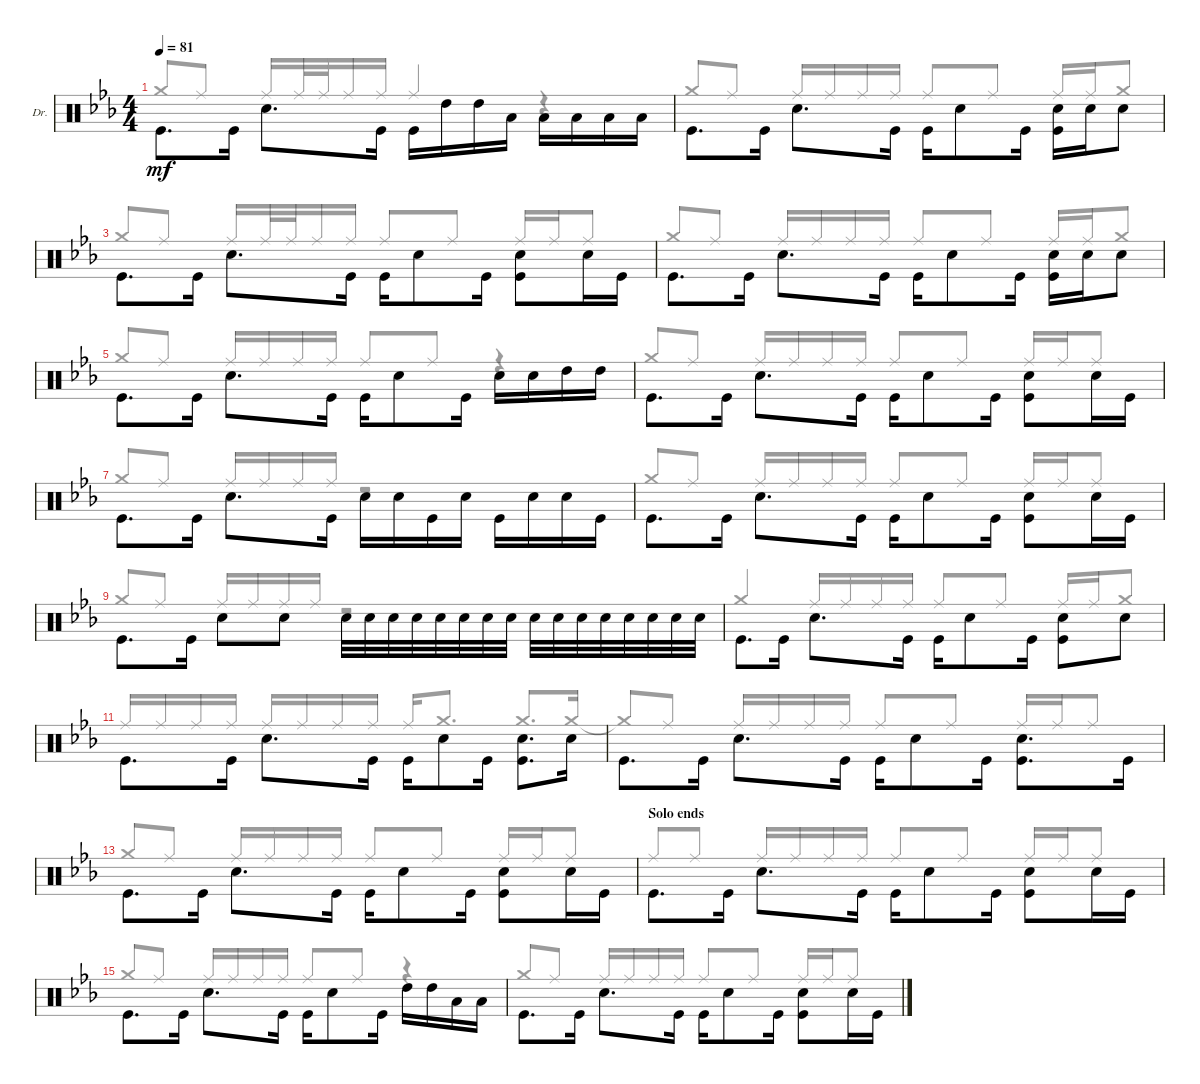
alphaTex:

\bracketExtendMode groupsimilarinstruments
\firstSystemTrackNameOrientation horizontal
\otherSystemsTrackNameOrientation horizontal
\defaultBarNumberDisplay FirstOfSystem
\track ("Drums" "Dr.") {multiBarRest instrument percussion}
\staff {score}
\articulation defaults
\voice
\ts (4 4)
\tempo 81
\clef neutral
\ks eb "Kick (hit)".8{d dy mf beam invert} "Kick (hit)".16 "Snare (hit) 2".8{d beam invert} "Kick (hit)".16 "Kick (hit)".16{beam invert} "High Tom (hit)".16 "High Tom (hit)".16 "Low Tom (hit)".16 "Low Tom (hit)".16{beam invert} "Low Tom (hit)".16 "Low Tom (hit)".16 "Low Tom (hit)".16
|
"Kick (hit)".8{d beam invert} "Kick (hit)".16 "Snare (hit) 2".8{d beam invert} "Kick (hit)".16 "Kick (hit)".16{beam invert} "Snare (hit) 2".8 "Kick (hit)".16 ("Snare (hit) 2" "Kick (hit)").16 "Snare (hit) 2".16{beam invert} "Snare (hit) 2".8 |
"Kick (hit)".8{d} "Kick (hit)".16{beam invert} "Snare (hit) 2".8{d beam invert} "Kick (hit)".16 "Kick (hit)".16{beam invert} "Snare (hit) 2".8 "Kick (hit)".16 ("Snare (hit) 2" "Kick (hit)").8{beam invert} "Snare (hit) 2".16 "Kick (hit)".16 |
"Kick (hit)".8{d beam invert} "Kick (hit)".16 "Snare (hit) 2".8{d beam invert} "Kick (hit)".16 "Kick (hit)".16{beam invert} "Snare (hit) 2".8 "Kick (hit)".16 ("Kick (hit)" "Snare (hit) 2").16{beam invert} "Snare (hit) 2".16 "Snare (hit) 2".8 |
"Kick (hit)".8{d beam invert} "Kick (hit)".16 "Snare (hit) 2".8{d} "Kick (hit)".16{beam invert} "Kick (hit)".16 "Snare (hit) 2".8 "Kick (hit)".16{beam invert} "Snare (hit) 2".16{beam invert} "Snare (hit) 2".16 "High Tom (hit)".16 "High Tom (hit)".16 |
"Kick (hit)".8{d beam invert} "Kick (hit)".16 "Snare (hit) 2".8{d beam invert} "Kick (hit)".16 "Kick (hit)".16 "Snare (hit) 2".8{beam invert} "Kick (hit)".16 ("Snare (hit) 2" "Kick (hit)").8 "Snare (hit) 2".16{beam invert} "Kick (hit)".16 |
"Kick (hit)".8{d} "Kick (hit)".16{beam invert} "Snare (hit) 2".8{d} "Kick (hit)".16{beam invert} "Snare (hit) 2".16 "Snare (hit) 2".16{beam invert} "Kick (hit)".16 "Snare (hit) 2".16 "Kick (hit)".16 "Snare (hit) 2".16{beam invert} "Snare (hit) 2".16 "Kick (hit)".16 |
"Kick (hit)".8{d} "Kick (hit)".16{beam invert} "Snare (hit) 2".8{d beam invert} "Kick (hit)".16 "Kick (hit)".16 "Snare (hit) 2".8{beam invert} "Kick (hit)".16 ("Snare (hit) 2" "Kick (hit)").8 "Snare (hit) 2".16 "Kick (hit)".16{beam invert} |
"Kick (hit)".8{d beam invert} "Kick (hit)".16 "Snare (hit) 2".8 "Snare (hit) 2".8{beam invert} "Snare (hit) 2".32 "Snare (hit) 2".32{beam invert} "Snare (hit) 2".32 "Snare (hit) 2".32{beam invert} "Snare (hit) 2".32 "Snare (hit) 2".32 "Snare (hit) 2".32{beam invert} "Snare (hit) 2".32 "Snare (hit) 2".32 "Snare (hit) 2".32{beam invert} "Snare (hit) 2".32 "Snare (hit) 2".32 "Snare (hit) 2".32{beam invert} "Snare (hit) 2".32 "Snare (hit) 2".32 "Snare (hit) 2".32{beam invert} |
"Kick (hit)".8{d} "Kick (hit)".16{beam invert} "Snare (hit) 2".8{d} "Kick (hit)".16{beam invert} "Kick (hit)".16{beam invert} "Snare (hit) 2".8 "Kick (hit)".16 ("Snare (hit) 2" "Kick (hit)").8{beam invert} "Snare (hit) 2".8 |
"Kick (hit)".8{d beam invert} "Kick (hit)".16 "Snare (hit) 2".8{d beam invert} "Kick (hit)".16 "Kick (hit)".16 "Snare (hit) 2".8 "Kick (hit)".16{beam invert} ("Snare (hit) 2" "Kick (hit)").8{d beam invert} "Snare (hit) 2".16 |
"Kick (hit)".8{d} "Kick (hit)".16{beam invert} "Snare (hit) 2".8{d beam invert} "Kick (hit)".16 "Kick (hit)".16 "Snare (hit) 2".8{beam invert} "Kick (hit)".16 ("Snare (hit) 2" "Kick (hit)").8{d beam invert} "Kick (hit)".16 |
"Kick (hit)".8{d beam invert} "Kick (hit)".16 "Snare (hit) 2".8{d} "Kick (hit)".16{beam invert} "Kick (hit)".16 "Snare (hit) 2".8{beam invert} "Kick (hit)".16 ("Snare (hit) 2" "Kick (hit)").8{beam invert} "Snare (hit) 2".16 "Kick (hit)".16 |
\section ("" "Solo ends")
"Kick (hit)".8{d} "Kick (hit)".16{beam invert} "Snare (hit) 2".8{d beam invert} "Kick (hit)".16 "Kick (hit)".16 "Snare (hit) 2".8{beam invert} "Kick (hit)".16 ("Snare (hit) 2" "Kick (hit)").8 "Snare (hit) 2".16 "Kick (hit)".16{beam invert} |
"Kick (hit)".8{d beam invert} "Kick (hit)".16 "Snare (hit) 2".8{d} "Kick (hit)".16{beam invert} "Kick (hit)".16{beam invert} "Snare (hit) 2".8 "Kick (hit)".16 "High Tom (hit)".16{beam invert} "High Tom (hit)".16 "Low Tom (hit)".16 "Low Tom (hit)".16 |
"Kick (hit)".8{d beam invert} "Kick (hit)".16 "Snare (hit) 2".8{d beam invert} "Kick (hit)".16 "Kick (hit)".16{beam invert} "Snare (hit) 2".8 "Kick (hit)".16 ("Snare (hit) 2" "Kick (hit)").8{beam invert} "Snare (hit) 2".16 "Kick (hit)".16
\voice
\clef neutral
\ottava regular
\simile none
\ks eb "Crash medium (hit)".8{dy mf beam invert} "Ride (middle)".8 "Ride (middle)".16{beam invert} "Ride (middle)".32 "Ride (middle)".32 "Ride (middle)".16 "Ride (middle)".16 "Ride (middle)".4{beam invert}
r.4 |
"Crash medium (hit)".8 "Ride (middle)".8{beam invert} "Ride (middle)".16{beam invert} "Ride (middle)".16{beam invert} "Ride (middle)".16 "Ride (middle)".16{beam invert} "Ride (middle)".8{beam invert} "Ride (middle)".8 "Ride (middle)".16 "Ride (middle)".16 "Crash medium (hit)".8{beam invert} |
"Crash medium (hit)".8 "Ride (middle)".8{beam invert} "Ride (middle)".16 "Ride (middle)".32 "Ride (middle)".32{beam invert} "Ride (middle)".16 "Ride (middle)".16 "Ride (middle)".8{beam invert} "Ride (middle)".8 "Ride (middle)".16 "Ride (middle)".16{beam invert} "Ride (middle)".8 |
"Crash medium (hit)".8{beam invert} "Ride (middle)".8 "Ride (middle)".16 "Ride (middle)".16{beam invert} "Ride (middle)".16 "Ride (middle)".16 "Ride (middle)".8{beam invert} "Ride (middle)".8 "Ride (middle)".16{beam invert} "Ride (middle)".16 "Crash medium (hit)".8 |
"Crash medium (hit)".8{beam invert} "Ride (middle)".8 "Ride (middle)".16{beam invert} "Ride (middle)".16 "Ride (middle)".16 "Ride (middle)".16 "Ride (middle)".8{beam invert} "Ride (middle)".8 r.4{beam invert} |
"Crash medium (hit)".8 "Ride (middle)".8{beam invert} "Ride (middle)".16{beam invert} "Ride (middle)".16 "Ride (middle)".16 "Ride (middle)".16 "Ride (middle)".8{beam invert} "Ride (middle)".8 "Ride (middle)".16{beam invert} "Ride (middle)".16 "Ride (middle)".8 |
"Crash medium (hit)".8{beam invert} "Ride (middle)".8 "Ride (middle)".16 "Ride (middle)".16{beam invert} "Ride (middle)".16 "Ride (middle)".16 r.2{beam invert} |
"Crash medium (hit)".8{beam invert} "Ride (middle)".8 "Ride (middle)".16 "Ride (middle)".16 "Ride (middle)".16{beam invert} "Ride (middle)".16 "Ride (middle)".8{beam invert} "Ride (middle)".8 "Ride (middle)".16{beam invert} "Ride (middle)".16 "Ride (middle)".8 |
"Crash medium (hit)".8{beam invert} "Ride (middle)".8 "Ride (middle)".16{beam invert} "Ride (middle)".16 "Ride (middle)".16 "Ride (middle)".16 r.2 |
"Crash medium (hit)".4{beam invert} "Ride (middle)".16 "Ride (middle)".16{beam invert} "Ride (middle)".16 "Ride (middle)".16 "Ride (middle)".8{beam invert} "Ride (middle)".8 "Ride (middle)".16 "Ride (middle)".16{beam invert} "Crash medium (hit)".8 |
"Ride (middle)".16 "Ride (middle)".16{beam invert} "Ride (middle)".16 "Ride (middle)".16 "Ride (middle)".16 "Ride (middle)".16 "Ride (middle)".16{beam invert} "Ride (middle)".16 "Ride (middle)".16{beam invert} "Crash medium (hit)".8{d} "Crash medium (hit)".8{d beam invert} "Crash medium (hit)".16 |
"Crash medium (hit)"{t}.8 "Ride (middle)".8{beam invert} "Ride (middle)".16{beam invert} "Ride (middle)".16 "Ride (middle)".16 "Ride (middle)".16 "Ride (middle)".8{beam invert} "Ride (middle)".8 "Ride (middle)".16{beam invert} "Ride (middle)".16 "Ride (middle)".8 |
"Crash medium (hit)".8{beam invert} "Ride (middle)".8 "Ride (middle)".16 "Ride (middle)".16{beam invert} "Ride (middle)".16 "Ride (middle)".16 "Ride (middle)".8{beam invert} "Ride (middle)".8 "Ride (middle)".16{beam invert} "Ride (middle)".16 "Ride (middle)".8 |
"Ride (middle)".8{beam invert} "Ride (middle)".8 "Ride (middle)".16{beam invert} "Ride (middle)".16 "Ride (middle)".16 "Ride (middle)".16 "Ride (middle)".8 "Ride (middle)".8{beam invert} "Ride (middle)".16{beam invert} "Ride (middle)".16 "Ride (middle)".8 |
"Crash medium (hit)".8 "Ride (middle)".8{beam invert} "Ride (middle)".16 "Ride (middle)".16{beam invert} "Ride (middle)".16 "Ride (middle)".16 "Ride (middle)".8{beam invert} "Ride (middle)".8 r.4 |
"Crash medium (hit)".8{beam invert} "Ride (middle)".8 "Ride (middle)".16{beam invert} "Ride (middle)".16 "Ride (middle)".16 "Ride (middle)".16 "Ride (middle)".8{beam invert} "Ride (middle)".8 "Ride (middle)".16{beam invert} "Ride (middle)".16 "Ride (middle)".8
